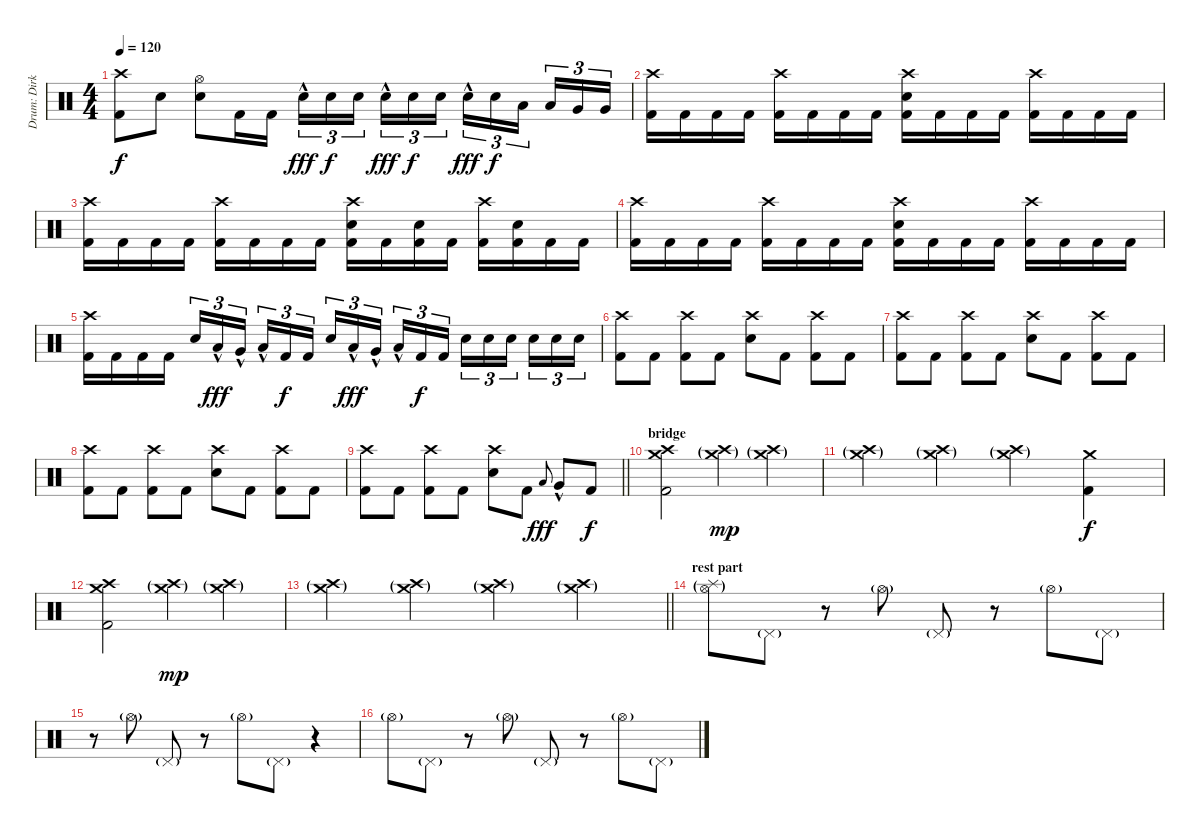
\track ("Drum: Dirk" "Drum: Dirk") {instrument percussion}
\staff {score}
\articulation defaults
\ts (4 4)
\tempo 120
\clef neutral
\ks c
("Crash high (hit)" "Kick (hit) 2").8{dy f} "Electric Snare (hit)".8 ("Hi-Hat (open)" "Electric Snare (hit)").8 "Kick (hit) 2".16 "Kick (hit) 2".16 "Electric Snare (hit)"{hac}.16{tu (3 2) dy fff} "Electric Snare (hit)".16{tu (3 2) dy f} "Electric Snare (hit)".16{tu (3 2) beam splitsecondary} "Electric Snare (hit)"{hac}.16{tu (3 2) dy fff} "Electric Snare (hit)".16{tu (3 2) dy f} "Electric Snare (hit)".16{tu (3 2)} "Electric Snare (hit)"{hac}.16{tu (3 2) dy fff} "Electric Snare (hit)".16{tu (3 2) dy f} "Low Tom (hit)".16{tu (3 2) beam splitsecondary} "Low Tom (hit)".16{tu (3 2)} "Very Low Tom (hit)".16{tu (3 2)} "Very Low Tom (hit)".16{tu (3 2)} |
("Crash high (hit)" "Kick (hit) 2").16 "Kick (hit) 2".16 "Kick (hit) 2".16 "Kick (hit) 2".16 ("Crash high (hit)" "Kick (hit) 2").16 "Kick (hit) 2".16 "Kick (hit) 2".16 "Kick (hit) 2".16 ("Crash high (hit)" "Electric Snare (hit)" "Kick (hit) 2").16 "Kick (hit) 2".16 "Kick (hit) 2".16 "Kick (hit) 2".16 ("Crash high (hit)" "Kick (hit) 2").16 "Kick (hit) 2".16 "Kick (hit) 2".16 "Kick (hit) 2".16 |
("Crash high (hit)" "Kick (hit) 2").16 "Kick (hit) 2".16 "Kick (hit) 2".16 "Kick (hit) 2".16 ("Crash high (hit)" "Kick (hit) 2").16 "Kick (hit) 2".16 "Kick (hit) 2".16 "Kick (hit) 2".16 ("Crash high (hit)" "Electric Snare (hit)" "Kick (hit) 2").16 "Kick (hit) 2".16 ("Electric Snare (hit)" "Kick (hit) 2").16 "Kick (hit) 2".16 ("Crash high (hit)" "Kick (hit) 2").16 ("Electric Snare (hit)" "Kick (hit) 2").16 "Kick (hit) 2".16 "Kick (hit) 2".16 |
("Crash high (hit)" "Kick (hit) 2").16 "Kick (hit) 2".16 "Kick (hit) 2".16 "Kick (hit) 2".16 ("Crash high (hit)" "Kick (hit) 2").16 "Kick (hit) 2".16 "Kick (hit) 2".16 "Kick (hit) 2".16 ("Crash high (hit)" "Electric Snare (hit)" "Kick (hit) 2").16 "Kick (hit) 2".16 "Kick (hit) 2".16 "Kick (hit) 2".16 ("Crash high (hit)" "Kick (hit) 2").16 "Kick (hit) 2".16 "Kick (hit) 2".16 "Kick (hit) 2".16 |
("Crash high (hit)" "Kick (hit) 2").16 "Kick (hit) 2".16 "Kick (hit) 2".16 "Kick (hit) 2".16 "Electric Snare (hit)".16{tu (3 2)} "Low Tom (hit)"{hac}.16{tu (3 2) dy fff} "Very Low Tom (hit)"{hac}.16{tu (3 2) beam splitsecondary} "Low Tom (hit)"{hac}.16{tu (3 2)} "Kick (hit) 2".16{tu (3 2) dy f} "Kick (hit) 2".16{tu (3 2)} "Electric Snare (hit)".16{tu (3 2)} "Low Tom (hit)"{hac}.16{tu (3 2) dy fff} "Very Low Tom (hit)"{hac}.16{tu (3 2) beam splitsecondary} "Low Tom (hit)"{hac}.16{tu (3 2)} "Kick (hit) 2".16{tu (3 2) dy f} "Kick (hit) 2".16{tu (3 2)} "Electric Snare (hit)".16{tu (3 2)} "Electric Snare (hit)".16{tu (3 2)} "Electric Snare (hit)".16{tu (3 2) beam splitsecondary} "Electric Snare (hit)".16{tu (3 2)} "Electric Snare (hit)".16{tu (3 2)} "Electric Snare (hit)".16{tu (3 2)} |
("Crash high (hit)" "Kick (hit) 2").8 "Kick (hit) 2".8 ("Crash high (hit)" "Kick (hit) 2").8 "Kick (hit) 2".8 ("Crash high (hit)" "Electric Snare (hit)").8 "Kick (hit) 2".8 ("Crash high (hit)" "Kick (hit) 2").8 "Kick (hit) 2".8 |
("Crash high (hit)" "Kick (hit) 2").8 "Kick (hit) 2".8 ("Crash high (hit)" "Kick (hit) 2").8 "Kick (hit) 2".8 ("Crash high (hit)" "Electric Snare (hit)").8 "Kick (hit) 2".8 ("Crash high (hit)" "Kick (hit) 2").8 "Kick (hit) 2".8 |
("Crash high (hit)" "Kick (hit) 2").8 "Kick (hit) 2".8 ("Crash high (hit)" "Kick (hit) 2").8 "Kick (hit) 2".8 ("Crash high (hit)" "Electric Snare (hit)").8 "Kick (hit) 2".8 ("Crash high (hit)" "Kick (hit) 2").8 "Kick (hit) 2".8 |
\barLineRight lightlight
("Crash high (hit)" "Kick (hit) 2").8 "Kick (hit) 2".8 ("Crash high (hit)" "Kick (hit) 2").8 "Kick (hit) 2".8 ("Crash high (hit)" "Electric Snare (hit)").8 "Kick (hit) 2".8 "Low Tom (hit)".8{gr onbeat dy fff} "Very Low Tom (hit)"{hac}.8 "Kick (hit) 2".8{dy f} |
\section ("" "bridge")
("Crash high (hit)" "Crash medium (hit)" "Kick (hit) 2").2 ("Crash high (hit)"{g} "Crash medium (hit)"{g}).4{dy mp} ("Crash high (hit)"{g} "Crash medium (hit)"{g}).4 |
("Crash high (hit)"{g} "Crash medium (hit)"{g}).4 ("Crash high (hit)"{g} "Crash medium (hit)"{g}).4 ("Crash high (hit)"{g} "Crash medium (hit)"{g}).4 ("Crash medium (hit)" "Kick (hit) 2").4{dy f} |
("Crash high (hit)" "Crash medium (hit)" "Kick (hit) 2").2 ("Crash high (hit)"{g} "Crash medium (hit)"{g}).4{dy mp} ("Crash high (hit)"{g} "Crash medium (hit)"{g}).4 |
\barLineRight lightlight
("Crash high (hit)"{g} "Crash medium (hit)"{g}).4 ("Crash high (hit)"{g} "Crash medium (hit)"{g}).4 ("Crash high (hit)"{g} "Crash medium (hit)"{g}).4 ("Crash high (hit)"{g} "Crash medium (hit)"{g}).4 |
\section ("" "rest part")
("Splash (hit)"{g} "Hi-Hat (open)"{g}).8 "Pedal Hi-Hat (hit)"{g}.8 r.8 "Hi-Hat (open)"{g}.8 "Pedal Hi-Hat (hit)"{g}.8 r.8 "Hi-Hat (open)"{g}.8 "Pedal Hi-Hat (hit)"{g}.8 |
r.8 "Hi-Hat (open)"{g}.8 "Pedal Hi-Hat (hit)"{g}.8 r.8 "Hi-Hat (open)"{g}.8 "Pedal Hi-Hat (hit)"{g}.8 r.4 |
"Hi-Hat (open)"{g}.8 "Pedal Hi-Hat (hit)"{g}.8 r.8 "Hi-Hat (open)"{g}.8 "Pedal Hi-Hat (hit)"{g}.8 r.8 "Hi-Hat (open)"{g}.8 "Pedal Hi-Hat (hit)"{g}.8
